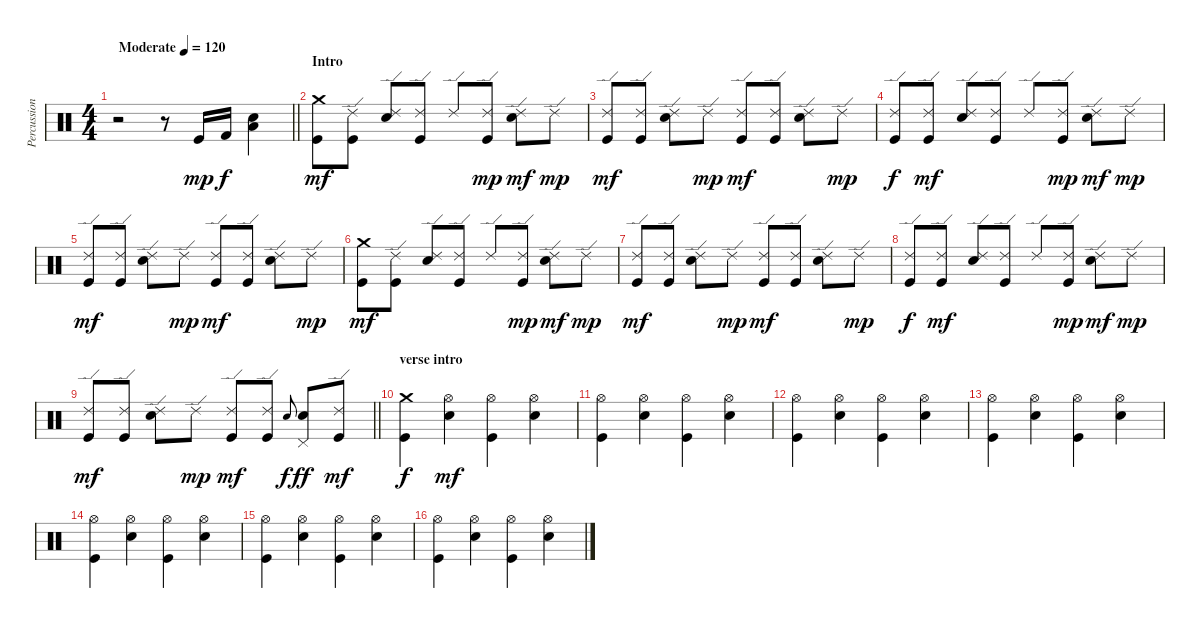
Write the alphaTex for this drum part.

\track ("Percussion" "Percussion") {instrument percussion}
\staff {score}
\articulation defaults
\ts (4 4)
\tempo (120 "Moderate")
\clef neutral
\barLineRight lightlight
\ks c
r.2{dy mp} r.8 "Kick (hit)".16 "Kick (hit) 2".16{dy f} ("Low Floor Tom (hit)" "Electric Snare (hit)").4 |
\section ("" "Intro")
("Crash medium (hit)" "Kick (hit)").8{dy mf} ("Ride (edge) 2" "Kick (hit)").8 ("Ride (edge) 2" "Electric Snare (hit)").8 ("Ride (edge) 2" "Kick (hit)").8 "Ride (edge) 2".8 ("Ride (edge) 2" "Kick (hit)").8{dy mp} ("Ride (edge) 2" "Electric Snare (hit)").8{dy mf} "Ride (edge) 2".8{dy mp} |
("Ride (edge) 2" "Kick (hit)").8{dy mf} ("Ride (edge) 2" "Kick (hit)").8 ("Ride (edge) 2" "Electric Snare (hit)").8 "Ride (edge) 2".8{dy mp} ("Ride (edge) 2" "Kick (hit)").8{dy mf} ("Ride (edge) 2" "Kick (hit)").8 ("Ride (edge) 2" "Electric Snare (hit)").8 "Ride (edge) 2".8{dy mp} |
("Ride (edge) 2" "Kick (hit)").8{dy f} ("Ride (edge) 2" "Kick (hit)").8{dy mf} ("Ride (edge) 2" "Electric Snare (hit)").8 ("Ride (edge) 2" "Kick (hit)").8 "Ride (edge) 2".8 ("Ride (edge) 2" "Kick (hit)").8{dy mp} ("Ride (edge) 2" "Electric Snare (hit)").8{dy mf} "Ride (edge) 2".8{dy mp} |
("Ride (edge) 2" "Kick (hit)").8{dy mf} ("Ride (edge) 2" "Kick (hit)").8 ("Ride (edge) 2" "Electric Snare (hit)").8 "Ride (edge) 2".8{dy mp} ("Ride (edge) 2" "Kick (hit)").8{dy mf} ("Ride (edge) 2" "Kick (hit)").8 ("Ride (edge) 2" "Electric Snare (hit)").8 "Ride (edge) 2".8{dy mp} |
("Crash medium (hit)" "Kick (hit)").8{dy mf} ("Ride (edge) 2" "Kick (hit)").8 ("Ride (edge) 2" "Electric Snare (hit)").8 ("Ride (edge) 2" "Kick (hit)").8 "Ride (edge) 2".8 ("Ride (edge) 2" "Kick (hit)").8{dy mp} ("Ride (edge) 2" "Electric Snare (hit)").8{dy mf} "Ride (edge) 2".8{dy mp} |
("Ride (edge) 2" "Kick (hit)").8{dy mf} ("Ride (edge) 2" "Kick (hit)").8 ("Ride (edge) 2" "Electric Snare (hit)").8 "Ride (edge) 2".8{dy mp} ("Ride (edge) 2" "Kick (hit)").8{dy mf} ("Ride (edge) 2" "Kick (hit)").8 ("Ride (edge) 2" "Electric Snare (hit)").8 "Ride (edge) 2".8{dy mp} |
("Ride (edge) 2" "Kick (hit)").8{dy f} ("Ride (edge) 2" "Kick (hit)").8{dy mf} ("Ride (edge) 2" "Electric Snare (hit)").8 ("Ride (edge) 2" "Kick (hit)").8 "Ride (edge) 2".8 ("Ride (edge) 2" "Kick (hit)").8{dy mp} ("Ride (edge) 2" "Electric Snare (hit)").8{dy mf} "Ride (edge) 2".8{dy mp} |
\barLineRight lightlight
("Ride (edge) 2" "Kick (hit)").8{dy mf} ("Ride (edge) 2" "Kick (hit)").8 ("Ride (edge) 2" "Electric Snare (hit)").8 "Ride (edge) 2".8{dy mp} ("Ride (edge) 2" "Kick (hit)").8{dy mf} ("Ride (edge) 2" "Kick (hit)").8 "Electric Snare (hit)".8{gr onbeat dy f} ("Pedal Hi-Hat (hit)" "Electric Snare (hit)").8{dy ff} ("Ride (edge) 2" "Kick (hit)").8{dy mf} |
\section ("" "verse intro")
("Crash medium (hit)" "Kick (hit)").4{dy f} ("Hi-Hat (open)" "Electric Snare (hit)").4{dy mf} ("Hi-Hat (open)" "Kick (hit)").4 ("Hi-Hat (open)" "Electric Snare (hit)").4 |
("Hi-Hat (open)" "Kick (hit)").4 ("Hi-Hat (open)" "Electric Snare (hit)").4 ("Hi-Hat (open)" "Kick (hit)").4 ("Hi-Hat (open)" "Electric Snare (hit)").4 |
("Hi-Hat (open)" "Kick (hit)").4 ("Hi-Hat (open)" "Electric Snare (hit)").4 ("Hi-Hat (open)" "Kick (hit)").4 ("Hi-Hat (open)" "Electric Snare (hit)").4 |
("Hi-Hat (open)" "Kick (hit)").4 ("Hi-Hat (open)" "Electric Snare (hit)").4 ("Hi-Hat (open)" "Kick (hit)").4 ("Hi-Hat (open)" "Electric Snare (hit)").4 |
("Hi-Hat (open)" "Kick (hit)").4 ("Hi-Hat (open)" "Electric Snare (hit)").4 ("Hi-Hat (open)" "Kick (hit)").4 ("Hi-Hat (open)" "Electric Snare (hit)").4 |
("Hi-Hat (open)" "Kick (hit)").4 ("Hi-Hat (open)" "Electric Snare (hit)").4 ("Hi-Hat (open)" "Kick (hit)").4 ("Hi-Hat (open)" "Electric Snare (hit)").4 |
("Hi-Hat (open)" "Kick (hit)").4 ("Hi-Hat (open)" "Electric Snare (hit)").4 ("Hi-Hat (open)" "Kick (hit)").4 ("Hi-Hat (open)" "Electric Snare (hit)").4
